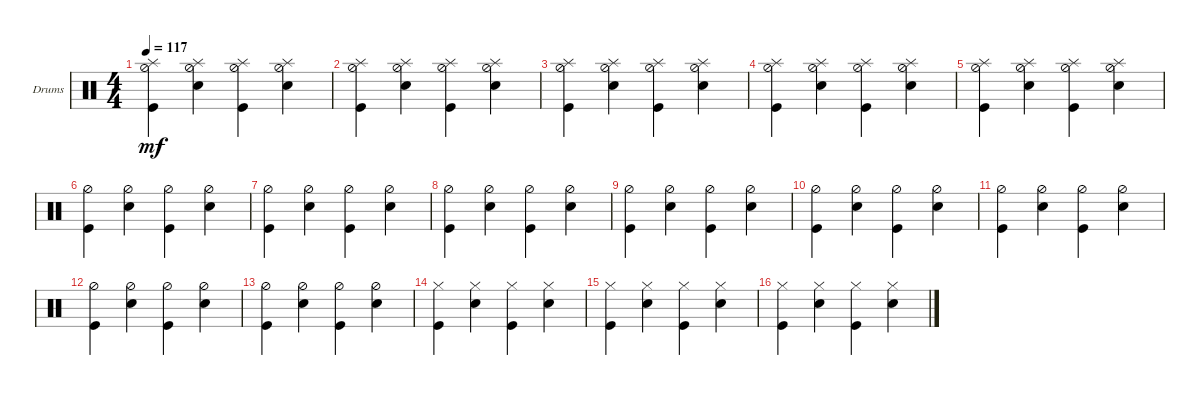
\defaultSystemsLayout 4
\bracketExtendMode groupsimilarinstruments
\firstSystemTrackNameOrientation horizontal
\otherSystemsTrackNameOrientation horizontal
\track ("Drumkit" "Drums") {instrument percussion}
\staff {score}
\articulation defaults
\ts (4 4)
\tempo 117
\clef neutral
\ks c
("Kick (hit)" "Hi-Hat (half)" "Splash (hit)").4{dy mf} ("Snare (hit) 2" "Hi-Hat (half)" "Splash (hit)").4 ("Kick (hit)" "Hi-Hat (half)" "Splash (hit)").4 ("Snare (hit) 2" "Hi-Hat (half)" "Splash (hit)").4 |
("Kick (hit)" "Hi-Hat (half)" "Splash (hit)").4 ("Snare (hit) 2" "Hi-Hat (half)" "Splash (hit)").4 ("Kick (hit)" "Hi-Hat (half)" "Splash (hit)").4 ("Snare (hit) 2" "Hi-Hat (half)" "Splash (hit)").4 |
("Kick (hit)" "Hi-Hat (half)" "Splash (hit)").4 ("Snare (hit) 2" "Hi-Hat (half)" "Splash (hit)").4 ("Kick (hit)" "Hi-Hat (half)" "Splash (hit)").4 ("Snare (hit) 2" "Hi-Hat (half)" "Splash (hit)").4 |
("Kick (hit)" "Hi-Hat (half)" "Splash (hit)").4 ("Snare (hit) 2" "Hi-Hat (half)" "Splash (hit)").4 ("Kick (hit)" "Hi-Hat (half)" "Splash (hit)").4 ("Snare (hit) 2" "Hi-Hat (half)" "Splash (hit)").4 |
("Kick (hit)" "Hi-Hat (half)" "Splash (hit)").4 ("Snare (hit) 2" "Hi-Hat (half)" "Splash (hit)").4 ("Kick (hit)" "Hi-Hat (half)" "Splash (hit)").4 ("Snare (hit) 2" "Hi-Hat (half)" "Splash (hit)").4 |
("Kick (hit)" "Hi-Hat (half)").4 ("Snare (hit) 2" "Hi-Hat (half)").4 ("Kick (hit)" "Hi-Hat (half)").4 ("Snare (hit) 2" "Hi-Hat (half)").4 |
("Kick (hit)" "Hi-Hat (half)").4 ("Snare (hit) 2" "Hi-Hat (half)").4 ("Kick (hit)" "Hi-Hat (half)").4 ("Snare (hit) 2" "Hi-Hat (half)").4 |
("Kick (hit)" "Hi-Hat (half)").4 ("Snare (hit) 2" "Hi-Hat (half)").4 ("Kick (hit)" "Hi-Hat (half)").4 ("Snare (hit) 2" "Hi-Hat (half)").4 |
("Kick (hit)" "Hi-Hat (half)").4 ("Snare (hit) 2" "Hi-Hat (half)").4 ("Kick (hit)" "Hi-Hat (half)").4 ("Snare (hit) 2" "Hi-Hat (half)").4 |
("Kick (hit)" "Hi-Hat (half)").4 ("Snare (hit) 2" "Hi-Hat (half)").4 ("Kick (hit)" "Hi-Hat (half)").4 ("Snare (hit) 2" "Hi-Hat (half)").4 |
("Kick (hit)" "Hi-Hat (half)").4 ("Snare (hit) 2" "Hi-Hat (half)").4 ("Kick (hit)" "Hi-Hat (half)").4 ("Snare (hit) 2" "Hi-Hat (half)").4 |
("Kick (hit)" "Hi-Hat (half)").4 ("Snare (hit) 2" "Hi-Hat (half)").4 ("Kick (hit)" "Hi-Hat (half)").4 ("Snare (hit) 2" "Hi-Hat (half)").4 |
("Kick (hit)" "Hi-Hat (half)").4 ("Snare (hit) 2" "Hi-Hat (half)").4 ("Kick (hit)" "Hi-Hat (half)").4 ("Snare (hit) 2" "Hi-Hat (half)").4 |
("Kick (hit)" "Hi-Hat (closed)").4 ("Snare (hit) 2" "Hi-Hat (closed)").4 ("Kick (hit)" "Hi-Hat (closed)").4 ("Snare (hit) 2" "Hi-Hat (closed)").4 |
("Kick (hit)" "Hi-Hat (closed)").4 ("Snare (hit) 2" "Hi-Hat (closed)").4 ("Kick (hit)" "Hi-Hat (closed)").4 ("Snare (hit) 2" "Hi-Hat (closed)").4 |
("Kick (hit)" "Hi-Hat (closed)").4 ("Snare (hit) 2" "Hi-Hat (closed)").4 ("Kick (hit)" "Hi-Hat (closed)").4 ("Snare (hit) 2" "Hi-Hat (closed)").4
